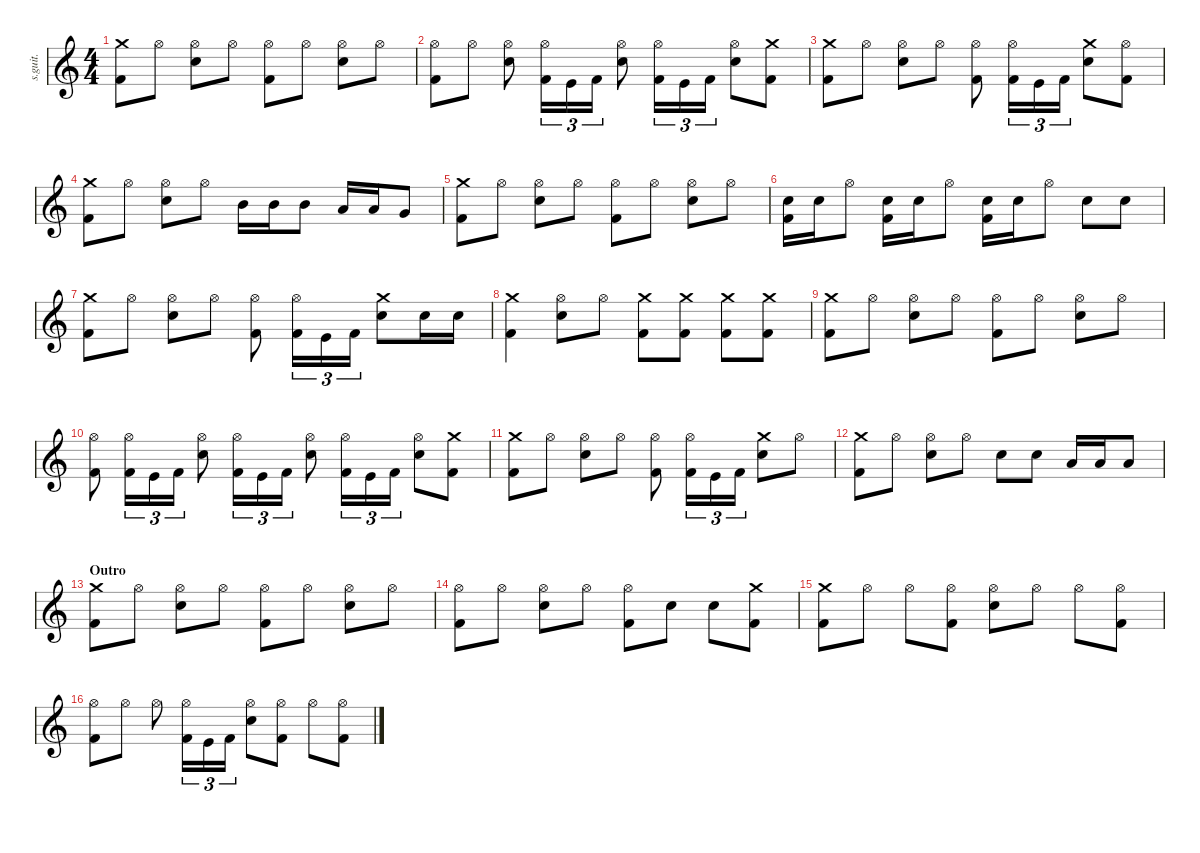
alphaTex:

\defaultSystemsLayout 4
\hideDynamics
\bracketExtendMode nobrackets
\track ("Lars Ulrich - Drums" "s.guit.") {instrument percussion}
\staff {score}
\articulation defaults
\ts (4 4)
\tempo (140 hide)
\clef g2
\ks c
("Crash medium (hit)" "Kick (hit) 2").8{lyrics (0 "") lyrics (1 "") lyrics (2 "") lyrics (3 "") lyrics (4 "") dy f} "Hi-Hat (open)".8{lyrics (0 "") lyrics (1 "") lyrics (2 "") lyrics (3 "") lyrics (4 "")} ("Hi-Hat (open)" "Snare (hit) 2").8{lyrics (0 "") lyrics (1 "") lyrics (2 "") lyrics (3 "") lyrics (4 "")} "Hi-Hat (open)".8{lyrics (0 "") lyrics (1 "") lyrics (2 "") lyrics (3 "") lyrics (4 "")} ("Hi-Hat (open)" "Kick (hit) 2").8{lyrics (0 "") lyrics (1 "") lyrics (2 "") lyrics (3 "") lyrics (4 "")} "Hi-Hat (open)".8{lyrics (0 "") lyrics (1 "") lyrics (2 "") lyrics (3 "") lyrics (4 "")} ("Hi-Hat (open)" "Snare (hit) 2").8{lyrics (0 "") lyrics (1 "") lyrics (2 "") lyrics (3 "") lyrics (4 "")} "Hi-Hat (open)".8{lyrics (0 "") lyrics (1 "") lyrics (2 "") lyrics (3 "") lyrics (4 "")} |
("Hi-Hat (open)" "Kick (hit) 2").8{lyrics (0 "") lyrics (1 "") lyrics (2 "") lyrics (3 "") lyrics (4 "")} "Hi-Hat (open)".8{lyrics (0 "") lyrics (1 "") lyrics (2 "") lyrics (3 "") lyrics (4 "")} ("Hi-Hat (open)" "Snare (hit) 2").8{lyrics (0 "") lyrics (1 "") lyrics (2 "") lyrics (3 "") lyrics (4 "")} ("Hi-Hat (open)" "Kick (hit) 2").16{tu (3 2) lyrics (0 "") lyrics (1 "") lyrics (2 "") lyrics (3 "") lyrics (4 "")} "Kick (hit)".16{tu (3 2) lyrics (0 "") lyrics (1 "") lyrics (2 "") lyrics (3 "") lyrics (4 "")} "Kick (hit) 2".16{tu (3 2) lyrics (0 "") lyrics (1 "") lyrics (2 "") lyrics (3 "") lyrics (4 "")} ("Hi-Hat (open)" "Snare (hit) 2").8{lyrics (0 "") lyrics (1 "") lyrics (2 "") lyrics (3 "") lyrics (4 "")} ("Hi-Hat (open)" "Kick (hit) 2").16{tu (3 2) lyrics (0 "") lyrics (1 "") lyrics (2 "") lyrics (3 "") lyrics (4 "")} "Kick (hit)".16{tu (3 2) lyrics (0 "") lyrics (1 "") lyrics (2 "") lyrics (3 "") lyrics (4 "")} "Kick (hit) 2".16{tu (3 2) lyrics (0 "") lyrics (1 "") lyrics (2 "") lyrics (3 "") lyrics (4 "")} ("Hi-Hat (open)" "Snare (hit) 2").8{lyrics (0 "") lyrics (1 "") lyrics (2 "") lyrics (3 "") lyrics (4 "")} ("Crash medium (hit)" "Kick (hit) 2").8{lyrics (0 "") lyrics (1 "") lyrics (2 "") lyrics (3 "") lyrics (4 "")} |
("Crash medium (hit)" "Kick (hit) 2").8{lyrics (0 "") lyrics (1 "") lyrics (2 "") lyrics (3 "") lyrics (4 "")} "Hi-Hat (open)".8{lyrics (0 "") lyrics (1 "") lyrics (2 "") lyrics (3 "") lyrics (4 "")} ("Hi-Hat (open)" "Snare (hit) 2").8{lyrics (0 "") lyrics (1 "") lyrics (2 "") lyrics (3 "") lyrics (4 "")} "Hi-Hat (open)".8{lyrics (0 "") lyrics (1 "") lyrics (2 "") lyrics (3 "") lyrics (4 "")} ("Hi-Hat (open)" "Kick (hit) 2").8{lyrics (0 "") lyrics (1 "") lyrics (2 "") lyrics (3 "") lyrics (4 "")} ("Hi-Hat (open)" "Kick (hit) 2").16{tu (3 2) lyrics (0 "") lyrics (1 "") lyrics (2 "") lyrics (3 "") lyrics (4 "")} "Kick (hit)".16{tu (3 2) lyrics (0 "") lyrics (1 "") lyrics (2 "") lyrics (3 "") lyrics (4 "")} "Kick (hit) 2".16{tu (3 2) lyrics (0 "") lyrics (1 "") lyrics (2 "") lyrics (3 "") lyrics (4 "")} ("Crash medium (hit)" "Snare (hit) 2").8{lyrics (0 "") lyrics (1 "") lyrics (2 "") lyrics (3 "") lyrics (4 "")} ("Hi-Hat (open)" "Kick (hit) 2").8{lyrics (0 "") lyrics (1 "") lyrics (2 "") lyrics (3 "") lyrics (4 "")} |
("Crash medium (hit)" "Kick (hit) 2").8{lyrics (0 "") lyrics (1 "") lyrics (2 "") lyrics (3 "") lyrics (4 "")} "Hi-Hat (open)".8{lyrics (0 "") lyrics (1 "") lyrics (2 "") lyrics (3 "") lyrics (4 "")} ("Hi-Hat (open)" "Snare (hit) 2").8{lyrics (0 "") lyrics (1 "") lyrics (2 "") lyrics (3 "") lyrics (4 "")} "Hi-Hat (open)".8{lyrics (0 "") lyrics (1 "") lyrics (2 "") lyrics (3 "") lyrics (4 "")} "Mid Tom (hit)".16{lyrics (0 "") lyrics (1 "") lyrics (2 "") lyrics (3 "") lyrics (4 "") dy fff} "Mid Tom (hit)".16{lyrics (0 "") lyrics (1 "") lyrics (2 "") lyrics (3 "") lyrics (4 "")} "Mid Tom (hit)".8{lyrics (0 "") lyrics (1 "") lyrics (2 "") lyrics (3 "") lyrics (4 "")} "Low Tom (hit)".16{lyrics (0 "") lyrics (1 "") lyrics (2 "") lyrics (3 "") lyrics (4 "")} "Low Tom (hit)".16{lyrics (0 "") lyrics (1 "") lyrics (2 "") lyrics (3 "") lyrics (4 "")} "Very Low Tom (hit)".8{lyrics (0 "") lyrics (1 "") lyrics (2 "") lyrics (3 "") lyrics (4 "") dy ff} |
("Crash medium (hit)" "Kick (hit) 2").8{lyrics (0 "") lyrics (1 "") lyrics (2 "") lyrics (3 "") lyrics (4 "") dy f} "Hi-Hat (open)".8{lyrics (0 "") lyrics (1 "") lyrics (2 "") lyrics (3 "") lyrics (4 "")} ("Hi-Hat (open)" "Snare (hit) 2").8{lyrics (0 "") lyrics (1 "") lyrics (2 "") lyrics (3 "") lyrics (4 "")} "Hi-Hat (open)".8{lyrics (0 "") lyrics (1 "") lyrics (2 "") lyrics (3 "") lyrics (4 "")} ("Hi-Hat (open)" "Kick (hit) 2").8{lyrics (0 "") lyrics (1 "") lyrics (2 "") lyrics (3 "") lyrics (4 "")} "Hi-Hat (open)".8{lyrics (0 "") lyrics (1 "") lyrics (2 "") lyrics (3 "") lyrics (4 "")} ("Hi-Hat (open)" "Snare (hit) 2").8{lyrics (0 "") lyrics (1 "") lyrics (2 "") lyrics (3 "") lyrics (4 "")} "Hi-Hat (open)".8{lyrics (0 "") lyrics (1 "") lyrics (2 "") lyrics (3 "") lyrics (4 "")} |
("Snare (hit) 2" "Kick (hit) 2").16{lyrics (0 "") lyrics (1 "") lyrics (2 "") lyrics (3 "") lyrics (4 "")} "Snare (hit) 2".16{lyrics (0 "") lyrics (1 "") lyrics (2 "") lyrics (3 "") lyrics (4 "")} "Hi-Hat (open)".8{lyrics (0 "") lyrics (1 "") lyrics (2 "") lyrics (3 "") lyrics (4 "")} ("Snare (hit) 2" "Kick (hit) 2").16{lyrics (0 "") lyrics (1 "") lyrics (2 "") lyrics (3 "") lyrics (4 "")} "Snare (hit) 2".16{lyrics (0 "") lyrics (1 "") lyrics (2 "") lyrics (3 "") lyrics (4 "")} "Hi-Hat (open)".8{lyrics (0 "") lyrics (1 "") lyrics (2 "") lyrics (3 "") lyrics (4 "")} ("Snare (hit) 2" "Kick (hit) 2").16{lyrics (0 "") lyrics (1 "") lyrics (2 "") lyrics (3 "") lyrics (4 "")} "Snare (hit) 2".16{lyrics (0 "") lyrics (1 "") lyrics (2 "") lyrics (3 "") lyrics (4 "")} "Hi-Hat (open)".8{lyrics (0 "") lyrics (1 "") lyrics (2 "") lyrics (3 "") lyrics (4 "")} "Snare (hit) 2".8{lyrics (0 "") lyrics (1 "") lyrics (2 "") lyrics (3 "") lyrics (4 "") dy fff} "Snare (hit) 2".8{lyrics (0 "") lyrics (1 "") lyrics (2 "") lyrics (3 "") lyrics (4 "")} |
("Crash medium (hit)" "Kick (hit) 2").8{lyrics (0 "") lyrics (1 "") lyrics (2 "") lyrics (3 "") lyrics (4 "") dy f} "Hi-Hat (open)".8{lyrics (0 "") lyrics (1 "") lyrics (2 "") lyrics (3 "") lyrics (4 "")} ("Hi-Hat (open)" "Snare (hit) 2").8{lyrics (0 "") lyrics (1 "") lyrics (2 "") lyrics (3 "") lyrics (4 "")} "Hi-Hat (open)".8{lyrics (0 "") lyrics (1 "") lyrics (2 "") lyrics (3 "") lyrics (4 "")} ("Hi-Hat (open)" "Kick (hit) 2").8{lyrics (0 "") lyrics (1 "") lyrics (2 "") lyrics (3 "") lyrics (4 "")} ("Hi-Hat (open)" "Kick (hit) 2").16{tu (3 2) lyrics (0 "") lyrics (1 "") lyrics (2 "") lyrics (3 "") lyrics (4 "")} "Kick (hit)".16{tu (3 2) lyrics (0 "") lyrics (1 "") lyrics (2 "") lyrics (3 "") lyrics (4 "") dy mp} "Kick (hit) 2".16{tu (3 2) lyrics (0 "") lyrics (1 "") lyrics (2 "") lyrics (3 "") lyrics (4 "") dy f} ("Crash medium (hit)" "Snare (hit) 2").8{lyrics (0 "") lyrics (1 "") lyrics (2 "") lyrics (3 "") lyrics (4 "")} "Snare (hit) 2".16{lyrics (0 "") lyrics (1 "") lyrics (2 "") lyrics (3 "") lyrics (4 "") dy mp} "Snare (hit) 2".16{lyrics (0 "") lyrics (1 "") lyrics (2 "") lyrics (3 "") lyrics (4 "")} |
("Crash medium (hit)" "Kick (hit) 2").4{lyrics (0 "") lyrics (1 "") lyrics (2 "") lyrics (3 "") lyrics (4 "") dy f} ("Hi-Hat (open)" "Snare (hit) 2").8{lyrics (0 "") lyrics (1 "") lyrics (2 "") lyrics (3 "") lyrics (4 "")} "Hi-Hat (open)".8{lyrics (0 "") lyrics (1 "") lyrics (2 "") lyrics (3 "") lyrics (4 "")} ("Crash medium (hit)" "Kick (hit) 2").8{lyrics (0 "") lyrics (1 "") lyrics (2 "") lyrics (3 "") lyrics (4 "")} ("Crash medium (hit)" "Kick (hit) 2").8{lyrics (0 "") lyrics (1 "") lyrics (2 "") lyrics (3 "") lyrics (4 "")} ("Crash medium (hit)" "Kick (hit) 2").8{lyrics (0 "") lyrics (1 "") lyrics (2 "") lyrics (3 "") lyrics (4 "")} ("Crash medium (hit)" "Kick (hit) 2").8{lyrics (0 "") lyrics (1 "") lyrics (2 "") lyrics (3 "") lyrics (4 "")} |
("Crash medium (hit)" "Kick (hit) 2").8{lyrics (0 "") lyrics (1 "") lyrics (2 "") lyrics (3 "") lyrics (4 "")} "Hi-Hat (open)".8{lyrics (0 "") lyrics (1 "") lyrics (2 "") lyrics (3 "") lyrics (4 "")} ("Hi-Hat (open)" "Snare (hit) 2").8{lyrics (0 "") lyrics (1 "") lyrics (2 "") lyrics (3 "") lyrics (4 "")} "Hi-Hat (open)".8{lyrics (0 "") lyrics (1 "") lyrics (2 "") lyrics (3 "") lyrics (4 "")} ("Hi-Hat (open)" "Kick (hit) 2").8{lyrics (0 "") lyrics (1 "") lyrics (2 "") lyrics (3 "") lyrics (4 "")} "Hi-Hat (open)".8{lyrics (0 "") lyrics (1 "") lyrics (2 "") lyrics (3 "") lyrics (4 "")} ("Hi-Hat (open)" "Snare (hit) 2").8{lyrics (0 "") lyrics (1 "") lyrics (2 "") lyrics (3 "") lyrics (4 "")} "Hi-Hat (open)".8{lyrics (0 "") lyrics (1 "") lyrics (2 "") lyrics (3 "") lyrics (4 "")} |
("Hi-Hat (open)" "Kick (hit) 2").8{lyrics (0 "") lyrics (1 "") lyrics (2 "") lyrics (3 "") lyrics (4 "")} ("Hi-Hat (open)" "Kick (hit) 2").16{tu (3 2) lyrics (0 "") lyrics (1 "") lyrics (2 "") lyrics (3 "") lyrics (4 "")} "Kick (hit)".16{tu (3 2) lyrics (0 "") lyrics (1 "") lyrics (2 "") lyrics (3 "") lyrics (4 "")} "Kick (hit) 2".16{tu (3 2) lyrics (0 "") lyrics (1 "") lyrics (2 "") lyrics (3 "") lyrics (4 "")} ("Hi-Hat (open)" "Snare (hit) 2").8{lyrics (0 "") lyrics (1 "") lyrics (2 "") lyrics (3 "") lyrics (4 "")} ("Hi-Hat (open)" "Kick (hit) 2").16{tu (3 2) lyrics (0 "") lyrics (1 "") lyrics (2 "") lyrics (3 "") lyrics (4 "")} "Kick (hit)".16{tu (3 2) lyrics (0 "") lyrics (1 "") lyrics (2 "") lyrics (3 "") lyrics (4 "")} "Kick (hit) 2".16{tu (3 2) lyrics (0 "") lyrics (1 "") lyrics (2 "") lyrics (3 "") lyrics (4 "")} ("Hi-Hat (open)" "Snare (hit) 2").8{lyrics (0 "") lyrics (1 "") lyrics (2 "") lyrics (3 "") lyrics (4 "")} ("Hi-Hat (open)" "Kick (hit) 2").16{tu (3 2) lyrics (0 "") lyrics (1 "") lyrics (2 "") lyrics (3 "") lyrics (4 "")} "Kick (hit)".16{tu (3 2) lyrics (0 "") lyrics (1 "") lyrics (2 "") lyrics (3 "") lyrics (4 "")} "Kick (hit) 2".16{tu (3 2) lyrics (0 "") lyrics (1 "") lyrics (2 "") lyrics (3 "") lyrics (4 "")} ("Hi-Hat (open)" "Snare (hit) 2").8{lyrics (0 "") lyrics (1 "") lyrics (2 "") lyrics (3 "") lyrics (4 "")} ("Crash medium (hit)" "Kick (hit) 2").8{lyrics (0 "") lyrics (1 "") lyrics (2 "") lyrics (3 "") lyrics (4 "")} |
("Crash medium (hit)" "Kick (hit) 2").8{lyrics (0 "") lyrics (1 "") lyrics (2 "") lyrics (3 "") lyrics (4 "")} "Hi-Hat (open)".8{lyrics (0 "") lyrics (1 "") lyrics (2 "") lyrics (3 "") lyrics (4 "")} ("Hi-Hat (open)" "Snare (hit) 2").8{lyrics (0 "") lyrics (1 "") lyrics (2 "") lyrics (3 "") lyrics (4 "")} "Hi-Hat (open)".8{lyrics (0 "") lyrics (1 "") lyrics (2 "") lyrics (3 "") lyrics (4 "")} ("Hi-Hat (open)" "Kick (hit) 2").8{lyrics (0 "") lyrics (1 "") lyrics (2 "") lyrics (3 "") lyrics (4 "")} ("Hi-Hat (open)" "Kick (hit) 2").16{tu (3 2) lyrics (0 "") lyrics (1 "") lyrics (2 "") lyrics (3 "") lyrics (4 "")} "Kick (hit)".16{tu (3 2) lyrics (0 "") lyrics (1 "") lyrics (2 "") lyrics (3 "") lyrics (4 "")} "Kick (hit) 2".16{tu (3 2) lyrics (0 "") lyrics (1 "") lyrics (2 "") lyrics (3 "") lyrics (4 "")} ("Crash medium (hit)" "Snare (hit) 2").8{lyrics (0 "") lyrics (1 "") lyrics (2 "") lyrics (3 "") lyrics (4 "")} "Hi-Hat (open)".8{lyrics (0 "") lyrics (1 "") lyrics (2 "") lyrics (3 "") lyrics (4 "")} |
("Crash medium (hit)" "Kick (hit) 2").8{lyrics (0 "") lyrics (1 "") lyrics (2 "") lyrics (3 "") lyrics (4 "")} "Hi-Hat (open)".8{lyrics (0 "") lyrics (1 "") lyrics (2 "") lyrics (3 "") lyrics (4 "")} ("Hi-Hat (open)" "Snare (hit) 2").8{lyrics (0 "") lyrics (1 "") lyrics (2 "") lyrics (3 "") lyrics (4 "")} "Hi-Hat (open)".8{lyrics (0 "") lyrics (1 "") lyrics (2 "") lyrics (3 "") lyrics (4 "")} "Snare (hit) 2".8{lyrics (0 "") lyrics (1 "") lyrics (2 "") lyrics (3 "") lyrics (4 "") dy fff} "Snare (hit) 2".8{lyrics (0 "") lyrics (1 "") lyrics (2 "") lyrics (3 "") lyrics (4 "") dy ff} "Low Tom (hit)".16{lyrics (0 "") lyrics (1 "") lyrics (2 "") lyrics (3 "") lyrics (4 "") dy fff} "Low Tom (hit)".16{lyrics (0 "") lyrics (1 "") lyrics (2 "") lyrics (3 "") lyrics (4 "")} "Low Tom (hit)".8{lyrics (0 "") lyrics (1 "") lyrics (2 "") lyrics (3 "") lyrics (4 "")} |
\section ("" "Outro")
("Crash medium (hit)" "Kick (hit) 2").8{lyrics (0 "") lyrics (1 "") lyrics (2 "") lyrics (3 "") lyrics (4 "") dy f} "Hi-Hat (open)".8{lyrics (0 "") lyrics (1 "") lyrics (2 "") lyrics (3 "") lyrics (4 "")} ("Hi-Hat (open)" "Snare (hit) 2").8{lyrics (0 "") lyrics (1 "") lyrics (2 "") lyrics (3 "") lyrics (4 "")} "Hi-Hat (open)".8{lyrics (0 "") lyrics (1 "") lyrics (2 "") lyrics (3 "") lyrics (4 "")} ("Hi-Hat (open)" "Kick (hit) 2").8{lyrics (0 "") lyrics (1 "") lyrics (2 "") lyrics (3 "") lyrics (4 "")} "Hi-Hat (open)".8{lyrics (0 "") lyrics (1 "") lyrics (2 "") lyrics (3 "") lyrics (4 "")} ("Hi-Hat (open)" "Snare (hit) 2").8{lyrics (0 "") lyrics (1 "") lyrics (2 "") lyrics (3 "") lyrics (4 "")} "Hi-Hat (open)".8{lyrics (0 "") lyrics (1 "") lyrics (2 "") lyrics (3 "") lyrics (4 "")} |
("Hi-Hat (open)" "Kick (hit) 2").8{lyrics (0 "") lyrics (1 "") lyrics (2 "") lyrics (3 "") lyrics (4 "")} "Hi-Hat (open)".8{lyrics (0 "") lyrics (1 "") lyrics (2 "") lyrics (3 "") lyrics (4 "")} ("Hi-Hat (open)" "Snare (hit) 2").8{lyrics (0 "") lyrics (1 "") lyrics (2 "") lyrics (3 "") lyrics (4 "")} "Hi-Hat (open)".8{lyrics (0 "") lyrics (1 "") lyrics (2 "") lyrics (3 "") lyrics (4 "")} ("Hi-Hat (open)" "Kick (hit) 2").8{lyrics (0 "") lyrics (1 "") lyrics (2 "") lyrics (3 "") lyrics (4 "")} "Snare (hit) 2".8{lyrics (0 "") lyrics (1 "") lyrics (2 "") lyrics (3 "") lyrics (4 "") dy fff} "Snare (hit) 2".8{lyrics (0 "") lyrics (1 "") lyrics (2 "") lyrics (3 "") lyrics (4 "")} ("Crash medium (hit)" "Kick (hit) 2").8{lyrics (0 "") lyrics (1 "") lyrics (2 "") lyrics (3 "") lyrics (4 "") dy f} |
("Crash medium (hit)" "Kick (hit) 2").8{lyrics (0 "") lyrics (1 "") lyrics (2 "") lyrics (3 "") lyrics (4 "")} "Hi-Hat (open)".8{lyrics (0 "") lyrics (1 "") lyrics (2 "") lyrics (3 "") lyrics (4 "")} "Hi-Hat (open)".8{lyrics (0 "") lyrics (1 "") lyrics (2 "") lyrics (3 "") lyrics (4 "")} ("Hi-Hat (open)" "Kick (hit) 2").8{lyrics (0 "") lyrics (1 "") lyrics (2 "") lyrics (3 "") lyrics (4 "")} ("Hi-Hat (open)" "Snare (hit) 2").8{lyrics (0 "") lyrics (1 "") lyrics (2 "") lyrics (3 "") lyrics (4 "")} "Hi-Hat (open)".8{lyrics (0 "") lyrics (1 "") lyrics (2 "") lyrics (3 "") lyrics (4 "")} "Hi-Hat (open)".8{lyrics (0 "") lyrics (1 "") lyrics (2 "") lyrics (3 "") lyrics (4 "")} ("Hi-Hat (open)" "Kick (hit) 2").8{lyrics (0 "") lyrics (1 "") lyrics (2 "") lyrics (3 "") lyrics (4 "")} |
("Hi-Hat (open)" "Kick (hit) 2").8{lyrics (0 "") lyrics (1 "") lyrics (2 "") lyrics (3 "") lyrics (4 "")} "Hi-Hat (open)".8{lyrics (0 "") lyrics (1 "") lyrics (2 "") lyrics (3 "") lyrics (4 "")} "Hi-Hat (open)".8{lyrics (0 "") lyrics (1 "") lyrics (2 "") lyrics (3 "") lyrics (4 "")} ("Hi-Hat (open)" "Kick (hit) 2").16{tu (3 2) lyrics (0 "") lyrics (1 "") lyrics (2 "") lyrics (3 "") lyrics (4 "")} "Kick (hit)".16{tu (3 2) lyrics (0 "") lyrics (1 "") lyrics (2 "") lyrics (3 "") lyrics (4 "")} "Kick (hit) 2".16{tu (3 2) lyrics (0 "") lyrics (1 "") lyrics (2 "") lyrics (3 "") lyrics (4 "")} ("Hi-Hat (open)" "Snare (hit) 2").8{lyrics (0 "") lyrics (1 "") lyrics (2 "") lyrics (3 "") lyrics (4 "")} ("Hi-Hat (open)" "Kick (hit) 2").8{lyrics (0 "") lyrics (1 "") lyrics (2 "") lyrics (3 "") lyrics (4 "")} "Hi-Hat (open)".8{lyrics (0 "") lyrics (1 "") lyrics (2 "") lyrics (3 "") lyrics (4 "")} ("Hi-Hat (open)" "Kick (hit) 2").8{lyrics (0 "") lyrics (1 "") lyrics (2 "") lyrics (3 "") lyrics (4 "")}
